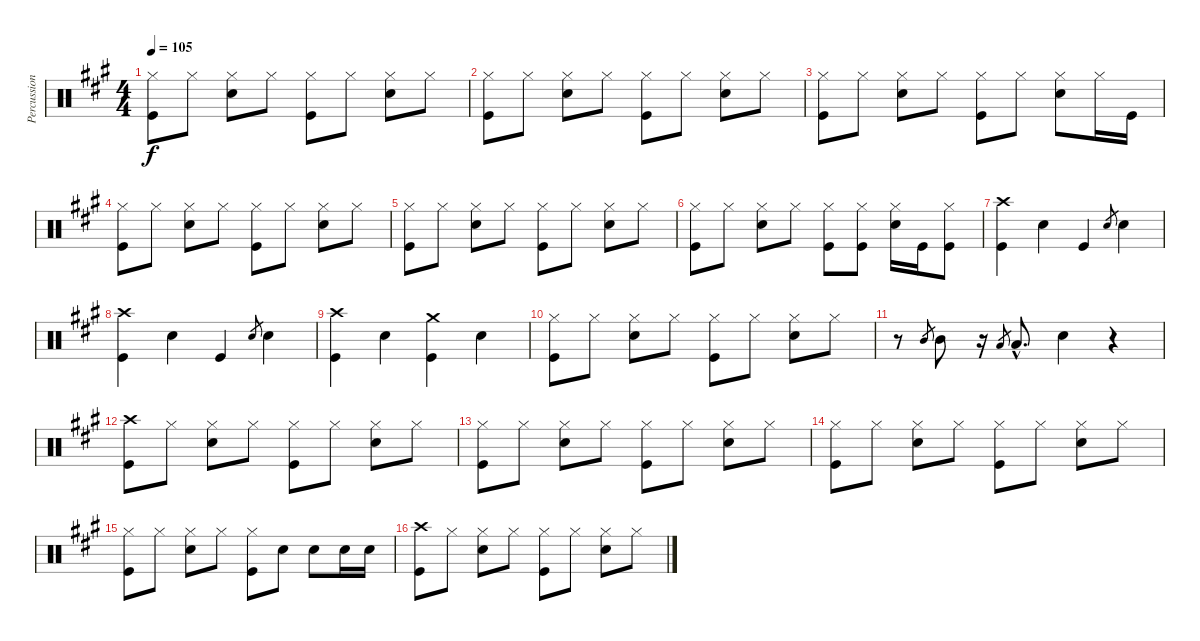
\track ("Percussion" "Percussion") {instrument percussion}
\staff {score}
\articulation defaults
\ts (4 4)
\tempo 105
\clef neutral
\ks a
("Hi-Hat (closed)" "Kick (hit)").8{dy f} "Hi-Hat (closed)".8 ("Hi-Hat (closed)" "Snare (hit) 2").8 "Hi-Hat (closed)".8 ("Hi-Hat (closed)" "Kick (hit)").8 "Hi-Hat (closed)".8 ("Hi-Hat (closed)" "Snare (hit) 2").8 "Hi-Hat (closed)".8 |
("Hi-Hat (closed)" "Kick (hit)").8 "Hi-Hat (closed)".8 ("Hi-Hat (closed)" "Snare (hit) 2").8 "Hi-Hat (closed)".8 ("Hi-Hat (closed)" "Kick (hit)").8 "Hi-Hat (closed)".8 ("Hi-Hat (closed)" "Snare (hit) 2").8 "Hi-Hat (closed)".8 |
("Hi-Hat (closed)" "Kick (hit)").8 "Hi-Hat (closed)".8 ("Hi-Hat (closed)" "Snare (hit) 2").8 "Hi-Hat (closed)".8 ("Hi-Hat (closed)" "Kick (hit)").8 "Hi-Hat (closed)".8 ("Hi-Hat (closed)" "Snare (hit) 2").8 "Hi-Hat (closed)".16 "Kick (hit)".16 |
("Hi-Hat (closed)" "Kick (hit)").8 "Hi-Hat (closed)".8 ("Hi-Hat (closed)" "Snare (hit) 2").8 "Hi-Hat (closed)".8 ("Hi-Hat (closed)" "Kick (hit)").8 "Hi-Hat (closed)".8 ("Hi-Hat (closed)" "Snare (hit) 2").8 "Hi-Hat (closed)".8 |
("Hi-Hat (closed)" "Kick (hit)").8 "Hi-Hat (closed)".8 ("Hi-Hat (closed)" "Snare (hit) 2").8 "Hi-Hat (closed)".8 ("Hi-Hat (closed)" "Kick (hit)").8 "Hi-Hat (closed)".8 ("Hi-Hat (closed)" "Snare (hit) 2").8 "Hi-Hat (closed)".8 |
("Hi-Hat (closed)" "Kick (hit)").8 "Hi-Hat (closed)".8 ("Hi-Hat (closed)" "Snare (hit) 2").8 "Hi-Hat (closed)".8 ("Hi-Hat (closed)" "Kick (hit)").8 ("Hi-Hat (closed)" "Kick (hit)").8 ("Hi-Hat (closed)" "Snare (hit) 2").16 "Kick (hit)".16 ("Hi-Hat (closed)" "Kick (hit)").8 |
("Crash high (hit)" "Kick (hit)").4 "Snare (hit) 2".4 "Kick (hit)".4 "Snare (hit) 2".8{gr} "Snare (hit) 2".4 |
("Crash high (hit)" "Kick (hit)").4 "Snare (hit) 2".4 "Kick (hit)".4 "Snare (hit) 2".8{gr} "Snare (hit) 2".4 |
("Crash high (hit)" "Kick (hit)").4 "Snare (hit) 2".4 ("Crash medium (hit)" "Kick (hit)").4 "Snare (hit) 2".4 |
("Hi-Hat (closed)" "Kick (hit)").8 "Hi-Hat (closed)".8 ("Hi-Hat (closed)" "Snare (hit) 2").8 "Hi-Hat (closed)".8 ("Hi-Hat (closed)" "Kick (hit)").8 "Hi-Hat (closed)".8 ("Hi-Hat (closed)" "Snare (hit) 2").8 "Hi-Hat (closed)".8 |
r.8 "Mid Tom (hit)".8{gr} "Mid Tom (hit)".8 r.16 "Low Tom (hit)".8{gr} "Low Tom (hit)"{hac}.8{d} "Snare (hit) 2".4 r.4 |
("Crash high (hit)" "Kick (hit)").8 "Hi-Hat (closed)".8 ("Hi-Hat (closed)" "Snare (hit) 2").8 "Hi-Hat (closed)".8 ("Hi-Hat (closed)" "Kick (hit)").8 "Hi-Hat (closed)".8 ("Hi-Hat (closed)" "Snare (hit) 2").8 "Hi-Hat (closed)".8 |
("Hi-Hat (closed)" "Kick (hit)").8 "Hi-Hat (closed)".8 ("Hi-Hat (closed)" "Snare (hit) 2").8 "Hi-Hat (closed)".8 ("Hi-Hat (closed)" "Kick (hit)").8 "Hi-Hat (closed)".8 ("Hi-Hat (closed)" "Snare (hit) 2").8 "Hi-Hat (closed)".8 |
("Hi-Hat (closed)" "Kick (hit)").8 "Hi-Hat (closed)".8 ("Hi-Hat (closed)" "Snare (hit) 2").8 "Hi-Hat (closed)".8 ("Hi-Hat (closed)" "Kick (hit)").8 "Hi-Hat (closed)".8 ("Hi-Hat (closed)" "Snare (hit) 2").8 "Hi-Hat (closed)".8 |
("Hi-Hat (closed)" "Kick (hit)").8 "Hi-Hat (closed)".8 ("Hi-Hat (closed)" "Snare (hit) 2").8 "Hi-Hat (closed)".8 ("Hi-Hat (closed)" "Kick (hit)").8 "Snare (hit) 2".8 "Snare (hit) 2".8 "Snare (hit) 2".16 "Snare (hit) 2".16 |
("Crash high (hit)" "Kick (hit)").8 "Hi-Hat (closed)".8 ("Hi-Hat (closed)" "Snare (hit) 2").8 "Hi-Hat (closed)".8 ("Hi-Hat (closed)" "Kick (hit)").8 "Hi-Hat (closed)".8 ("Hi-Hat (closed)" "Snare (hit) 2").8 "Hi-Hat (closed)".8
